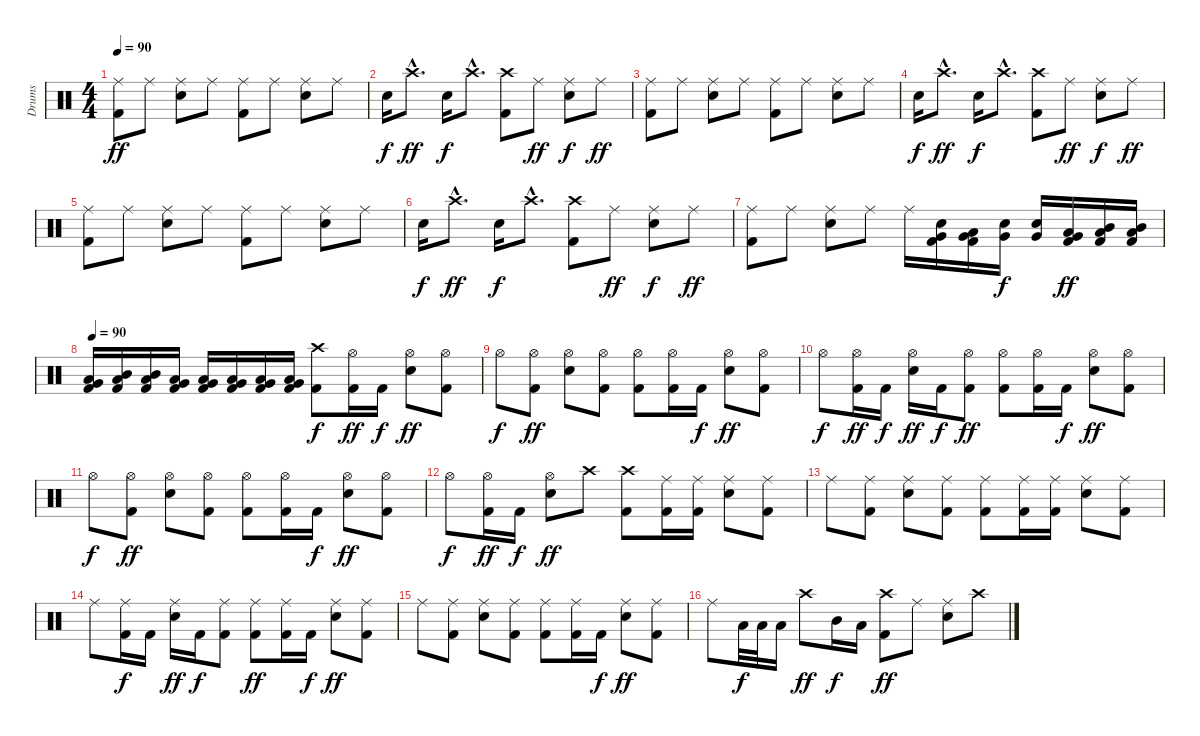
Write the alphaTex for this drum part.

\track ("Drums" "Drums") {instrument percussion}
\staff {score}
\articulation defaults
\ts (4 4)
\tempo 90
\clef neutral
\ks c
("Ride (middle)" "Kick (hit) 2").8{dy ff} "Ride (middle)".8 ("Ride (middle)" "Electric Snare (hit)").8 "Ride (middle)".8 ("Ride (middle)" "Kick (hit) 2").8 "Ride (middle)".8 ("Ride (middle)" "Electric Snare (hit)").8 "Ride (middle)".8 |
"Electric Snare (hit)".16{dy f} "Crash high (hit)"{hac}.8{d dy ff} "Electric Snare (hit)".16{dy f} "Crash high (hit)"{hac}.8{d} ("Crash high (hit)" "Kick (hit) 2").8 "Ride (middle)".8{dy ff} ("Ride (middle)" "Electric Snare (hit)").8{dy f} "Ride (middle)".8{dy ff} |
("Ride (middle)" "Kick (hit) 2").8 "Ride (middle)".8 ("Ride (middle)" "Electric Snare (hit)").8 "Ride (middle)".8 ("Ride (middle)" "Kick (hit) 2").8 "Ride (middle)".8 ("Ride (middle)" "Electric Snare (hit)").8 "Ride (middle)".8 |
"Electric Snare (hit)".16{dy f} "Crash high (hit)"{hac}.8{d dy ff} "Electric Snare (hit)".16{dy f} "Crash high (hit)"{hac}.8{d} ("Crash high (hit)" "Kick (hit) 2").8 "Ride (middle)".8{dy ff} ("Ride (middle)" "Electric Snare (hit)").8{dy f} "Ride (middle)".8{dy ff} |
("Ride (middle)" "Kick (hit) 2").8 "Ride (middle)".8 ("Ride (middle)" "Electric Snare (hit)").8 "Ride (middle)".8 ("Ride (middle)" "Kick (hit) 2").8 "Ride (middle)".8 ("Ride (middle)" "Electric Snare (hit)").8 "Ride (middle)".8 |
"Electric Snare (hit)".16{dy f} "Crash high (hit)"{hac}.8{d dy ff} "Electric Snare (hit)".16{dy f} "Crash high (hit)"{hac}.8{d} ("Crash high (hit)" "Kick (hit) 2").8 "Ride (middle)".8{dy ff} ("Ride (middle)" "Electric Snare (hit)").8{dy f} "Ride (middle)".8{dy ff} |
("Ride (middle)" "Kick (hit) 2").8 "Ride (middle)".8 ("Ride (middle)" "Electric Snare (hit)").8 "Ride (middle)".8 "Ride (middle)".16 ("Very Low Tom (hit)" "Electric Snare (hit)" "Kick (hit) 2").16 ("Low Tom (hit)" "Very Low Tom (hit)" "Kick (hit) 2").16 ("Very Low Tom (hit)" "Electric Snare (hit)").16{dy f} ("Very Low Tom (hit)" "Electric Snare (hit)").16 ("Low Tom (hit)" "Very Low Tom (hit)" "Kick (hit) 2").16{dy ff} ("Mid Tom (hit)" "Low Tom (hit)" "Kick (hit) 2").16 ("Mid Tom (hit)" "Low Tom (hit)" "Kick (hit) 2").16 |
\tempo 90
("Low Tom (hit)" "Very Low Tom (hit)" "Kick (hit) 2").16 ("Mid Tom (hit)" "Low Tom (hit)" "Kick (hit) 2").16 ("Mid Tom (hit)" "Low Tom (hit)" "Kick (hit) 2").16 ("Low Tom (hit)" "Very Low Tom (hit)" "Kick (hit) 2").16 ("Low Tom (hit)" "Very Low Tom (hit)" "Kick (hit) 2").16 ("Low Tom (hit)" "Very Low Tom (hit)" "Kick (hit) 2").16 ("Very Low Tom (hit)" "Low Floor Tom (hit)" "Kick (hit) 2").16 ("Very Low Tom (hit)" "Low Floor Tom (hit)" "Kick (hit) 2").16 ("Crash high (hit)" "Kick (hit) 2").8{dy f} ("Hi-Hat (open)" "Kick (hit) 2").16{dy ff} "Kick (hit) 2".16{dy f} ("Hi-Hat (open)" "Electric Snare (hit)").8{dy ff} ("Hi-Hat (open)" "Kick (hit) 2").8 |
"Hi-Hat (open)".8{dy f} ("Hi-Hat (open)" "Kick (hit) 2").8{dy ff} ("Hi-Hat (open)" "Electric Snare (hit)").8 ("Hi-Hat (open)" "Kick (hit) 2").8 ("Hi-Hat (open)" "Kick (hit) 2").8 ("Hi-Hat (open)" "Kick (hit) 2").16 "Kick (hit) 2".16{dy f} ("Hi-Hat (open)" "Electric Snare (hit)").8{dy ff} ("Hi-Hat (open)" "Kick (hit) 2").8 |
"Hi-Hat (open)".8{dy f} ("Hi-Hat (open)" "Kick (hit) 2").16{dy ff} "Kick (hit) 2".16{dy f} ("Hi-Hat (open)" "Electric Snare (hit)").16{dy ff} "Kick (hit) 2".16{dy f} ("Hi-Hat (open)" "Kick (hit) 2").8{dy ff} ("Hi-Hat (open)" "Kick (hit) 2").8 ("Hi-Hat (open)" "Kick (hit) 2").16 "Kick (hit) 2".16{dy f} ("Hi-Hat (open)" "Electric Snare (hit)").8{dy ff} ("Hi-Hat (open)" "Kick (hit) 2").8 |
"Hi-Hat (open)".8{dy f} ("Hi-Hat (open)" "Kick (hit) 2").8{dy ff} ("Hi-Hat (open)" "Electric Snare (hit)").8 ("Hi-Hat (open)" "Kick (hit) 2").8 ("Hi-Hat (open)" "Kick (hit) 2").8 ("Hi-Hat (open)" "Kick (hit) 2").16 "Kick (hit) 2".16{dy f} ("Hi-Hat (open)" "Electric Snare (hit)").8{dy ff} ("Hi-Hat (open)" "Kick (hit) 2").8 |
"Hi-Hat (open)".8{dy f} ("Hi-Hat (open)" "Kick (hit) 2").16{dy ff} "Kick (hit) 2".16{dy f} ("Hi-Hat (open)" "Electric Snare (hit)").8{dy ff} "Crash high (hit)".8 ("Crash high (hit)" "Kick (hit) 2").8 ("Ride (middle)" "Kick (hit) 2").16 ("Ride (middle)" "Kick (hit) 2").16 ("Ride (middle)" "Electric Snare (hit)").8 ("Ride (middle)" "Kick (hit) 2").8 |
"Ride (middle)".8 ("Ride (middle)" "Kick (hit) 2").8 ("Ride (middle)" "Electric Snare (hit)").8 ("Ride (middle)" "Kick (hit) 2").8 ("Ride (middle)" "Kick (hit) 2").8 ("Ride (middle)" "Kick (hit) 2").16 ("Ride (middle)" "Kick (hit) 2").16 ("Ride (middle)" "Electric Snare (hit)").8 ("Ride (middle)" "Kick (hit) 2").8 |
"Ride (middle)".8 ("Ride (middle)" "Kick (hit) 2").16{dy f} "Kick (hit) 2".16 ("Ride (middle)" "Electric Snare (hit)").16{dy ff} "Kick (hit) 2".16{dy f} ("Ride (middle)" "Kick (hit) 2").8 ("Ride (middle)" "Kick (hit) 2").8{dy ff} ("Ride (middle)" "Kick (hit) 2").16 "Kick (hit) 2".16{dy f} ("Ride (middle)" "Electric Snare (hit)").8{dy ff} ("Ride (middle)" "Kick (hit) 2").8 |
"Ride (middle)".8 ("Ride (middle)" "Kick (hit) 2").8 ("Ride (middle)" "Electric Snare (hit)").8 ("Ride (middle)" "Kick (hit) 2").8 ("Ride (middle)" "Kick (hit) 2").8 ("Ride (middle)" "Kick (hit) 2").16 "Kick (hit) 2".16{dy f} ("Ride (middle)" "Electric Snare (hit)").8{dy ff} ("Ride (middle)" "Kick (hit) 2").8 |
"Ride (middle)".8 "Low Tom (hit)".32{dy f} "Low Tom (hit)".32 "Low Tom (hit)".16 "Crash high (hit)".8{dy ff} "Mid Tom (hit)".16{dy f} "Low Tom (hit)".16 ("Crash high (hit)" "Kick (hit) 2").8{dy ff} "Ride (middle)".8 ("Ride (middle)" "Electric Snare (hit)").8 "Crash high (hit)".8
